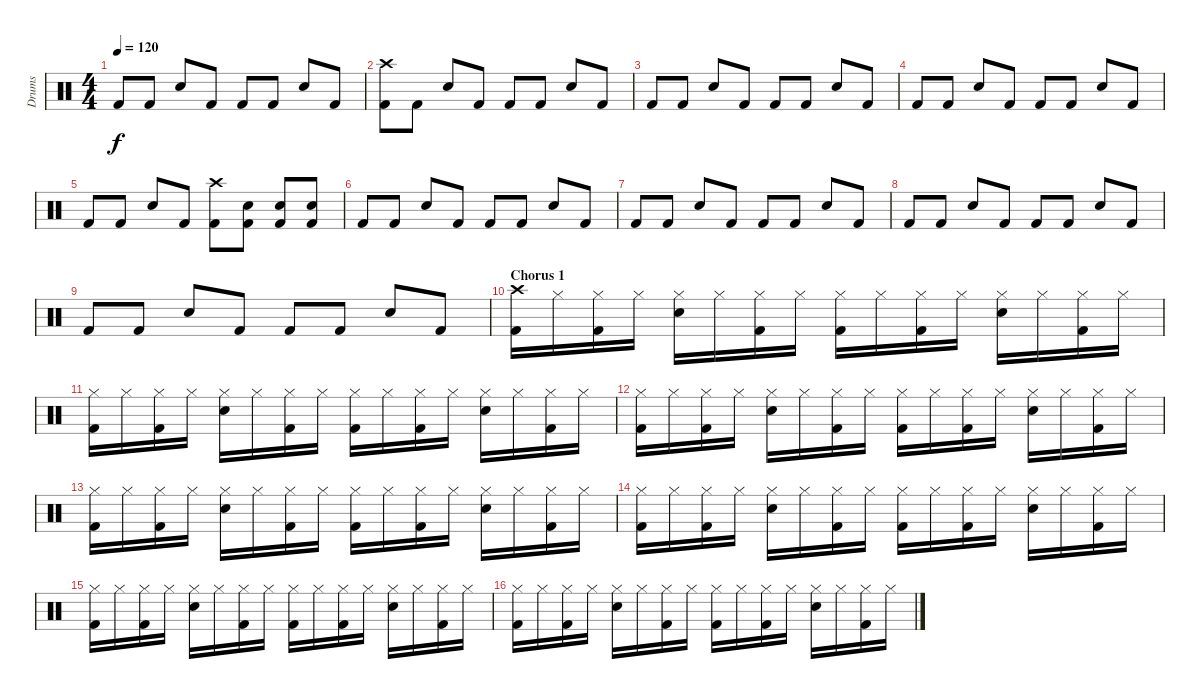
\track ("Drums" "Drums") {instrument percussion}
\staff {score}
\articulation defaults
\ts (4 4)
\tempo 120
\clef neutral
\ks c "Kick (hit) 2".8{dy f} "Kick (hit) 2".8 "Snare (hit) 2".8 "Kick (hit) 2".8 "Kick (hit) 2".8 "Kick (hit) 2".8 "Snare (hit) 2".8 "Kick (hit) 2".8
|
("Crash high (hit)" "Kick (hit) 2").8 "Kick (hit) 2".8 "Snare (hit) 2".8 "Kick (hit) 2".8 "Kick (hit) 2".8 "Kick (hit) 2".8 "Snare (hit) 2".8 "Kick (hit) 2".8 |
"Kick (hit) 2".8 "Kick (hit) 2".8 "Snare (hit) 2".8 "Kick (hit) 2".8 "Kick (hit) 2".8 "Kick (hit) 2".8 "Snare (hit) 2".8 "Kick (hit) 2".8 |
"Kick (hit) 2".8 "Kick (hit) 2".8 "Snare (hit) 2".8 "Kick (hit) 2".8 "Kick (hit) 2".8 "Kick (hit) 2".8 "Snare (hit) 2".8 "Kick (hit) 2".8 |
"Kick (hit) 2".8 "Kick (hit) 2".8 "Snare (hit) 2".8 "Kick (hit) 2".8 ("Crash high (hit)" "Kick (hit) 2").8 ("Snare (hit) 2" "Kick (hit) 2").8 ("Snare (hit) 2" "Kick (hit) 2").8 ("Snare (hit) 2" "Kick (hit) 2").8 |
"Kick (hit) 2".8 "Kick (hit) 2".8 "Snare (hit) 2".8 "Kick (hit) 2".8 "Kick (hit) 2".8 "Kick (hit) 2".8 "Snare (hit) 2".8 "Kick (hit) 2".8 |
"Kick (hit) 2".8 "Kick (hit) 2".8 "Snare (hit) 2".8 "Kick (hit) 2".8 "Kick (hit) 2".8 "Kick (hit) 2".8 "Snare (hit) 2".8 "Kick (hit) 2".8 |
"Kick (hit) 2".8 "Kick (hit) 2".8 "Snare (hit) 2".8 "Kick (hit) 2".8 "Kick (hit) 2".8 "Kick (hit) 2".8 "Snare (hit) 2".8 "Kick (hit) 2".8 |
"Kick (hit) 2".8 "Kick (hit) 2".8 "Snare (hit) 2".8 "Kick (hit) 2".8 "Kick (hit) 2".8 "Kick (hit) 2".8 "Snare (hit) 2".8 "Kick (hit) 2".8 |
\section ("" "Chorus 1")
("Crash high (hit)" "Kick (hit) 2").16 "Hi-Hat (closed)".16 ("Hi-Hat (closed)" "Kick (hit) 2").16 "Hi-Hat (closed)".16 ("Hi-Hat (closed)" "Snare (hit) 2").16 "Hi-Hat (closed)".16 ("Hi-Hat (closed)" "Kick (hit) 2").16 "Hi-Hat (closed)".16 ("Hi-Hat (closed)" "Kick (hit) 2").16 "Hi-Hat (closed)".16 ("Hi-Hat (closed)" "Kick (hit) 2").16 "Hi-Hat (closed)".16 ("Hi-Hat (closed)" "Snare (hit) 2").16 "Hi-Hat (closed)".16 ("Hi-Hat (closed)" "Kick (hit) 2").16 "Hi-Hat (closed)".16 |
("Hi-Hat (closed)" "Kick (hit) 2").16 "Hi-Hat (closed)".16 ("Hi-Hat (closed)" "Kick (hit) 2").16 "Hi-Hat (closed)".16 ("Hi-Hat (closed)" "Snare (hit) 2").16 "Hi-Hat (closed)".16 ("Hi-Hat (closed)" "Kick (hit) 2").16 "Hi-Hat (closed)".16 ("Hi-Hat (closed)" "Kick (hit) 2").16 "Hi-Hat (closed)".16 ("Hi-Hat (closed)" "Kick (hit) 2").16 "Hi-Hat (closed)".16 ("Hi-Hat (closed)" "Snare (hit) 2").16 "Hi-Hat (closed)".16 ("Hi-Hat (closed)" "Kick (hit) 2").16 "Hi-Hat (closed)".16 |
("Hi-Hat (closed)" "Kick (hit) 2").16 "Hi-Hat (closed)".16 ("Hi-Hat (closed)" "Kick (hit) 2").16 "Hi-Hat (closed)".16 ("Hi-Hat (closed)" "Snare (hit) 2").16 "Hi-Hat (closed)".16 ("Hi-Hat (closed)" "Kick (hit) 2").16 "Hi-Hat (closed)".16 ("Hi-Hat (closed)" "Kick (hit) 2").16 "Hi-Hat (closed)".16 ("Hi-Hat (closed)" "Kick (hit) 2").16 "Hi-Hat (closed)".16 ("Hi-Hat (closed)" "Snare (hit) 2").16 "Hi-Hat (closed)".16 ("Hi-Hat (closed)" "Kick (hit) 2").16 "Hi-Hat (closed)".16 |
("Hi-Hat (closed)" "Kick (hit) 2").16 "Hi-Hat (closed)".16 ("Hi-Hat (closed)" "Kick (hit) 2").16 "Hi-Hat (closed)".16 ("Hi-Hat (closed)" "Snare (hit) 2").16 "Hi-Hat (closed)".16 ("Hi-Hat (closed)" "Kick (hit) 2").16 "Hi-Hat (closed)".16 ("Hi-Hat (closed)" "Kick (hit) 2").16 "Hi-Hat (closed)".16 ("Hi-Hat (closed)" "Kick (hit) 2").16 "Hi-Hat (closed)".16 ("Hi-Hat (closed)" "Snare (hit) 2").16 "Hi-Hat (closed)".16 ("Hi-Hat (closed)" "Kick (hit) 2").16 "Hi-Hat (closed)".16 |
("Hi-Hat (closed)" "Kick (hit) 2").16 "Hi-Hat (closed)".16 ("Hi-Hat (closed)" "Kick (hit) 2").16 "Hi-Hat (closed)".16 ("Hi-Hat (closed)" "Snare (hit) 2").16 "Hi-Hat (closed)".16 ("Hi-Hat (closed)" "Kick (hit) 2").16 "Hi-Hat (closed)".16 ("Hi-Hat (closed)" "Kick (hit) 2").16 "Hi-Hat (closed)".16 ("Hi-Hat (closed)" "Kick (hit) 2").16 "Hi-Hat (closed)".16 ("Hi-Hat (closed)" "Snare (hit) 2").16 "Hi-Hat (closed)".16 ("Hi-Hat (closed)" "Kick (hit) 2").16 "Hi-Hat (closed)".16 |
("Hi-Hat (closed)" "Kick (hit) 2").16 "Hi-Hat (closed)".16 ("Hi-Hat (closed)" "Kick (hit) 2").16 "Hi-Hat (closed)".16 ("Hi-Hat (closed)" "Snare (hit) 2").16 "Hi-Hat (closed)".16 ("Hi-Hat (closed)" "Kick (hit) 2").16 "Hi-Hat (closed)".16 ("Hi-Hat (closed)" "Kick (hit) 2").16 "Hi-Hat (closed)".16 ("Hi-Hat (closed)" "Kick (hit) 2").16 "Hi-Hat (closed)".16 ("Hi-Hat (closed)" "Snare (hit) 2").16 "Hi-Hat (closed)".16 ("Hi-Hat (closed)" "Kick (hit) 2").16 "Hi-Hat (closed)".16 |
("Hi-Hat (closed)" "Kick (hit) 2").16 "Hi-Hat (closed)".16 ("Hi-Hat (closed)" "Kick (hit) 2").16 "Hi-Hat (closed)".16 ("Hi-Hat (closed)" "Snare (hit) 2").16 "Hi-Hat (closed)".16 ("Hi-Hat (closed)" "Kick (hit) 2").16 "Hi-Hat (closed)".16 ("Hi-Hat (closed)" "Kick (hit) 2").16 "Hi-Hat (closed)".16 ("Hi-Hat (closed)" "Kick (hit) 2").16 "Hi-Hat (closed)".16 ("Hi-Hat (closed)" "Snare (hit) 2").16 "Hi-Hat (closed)".16 ("Hi-Hat (closed)" "Kick (hit) 2").16 "Hi-Hat (closed)".16
